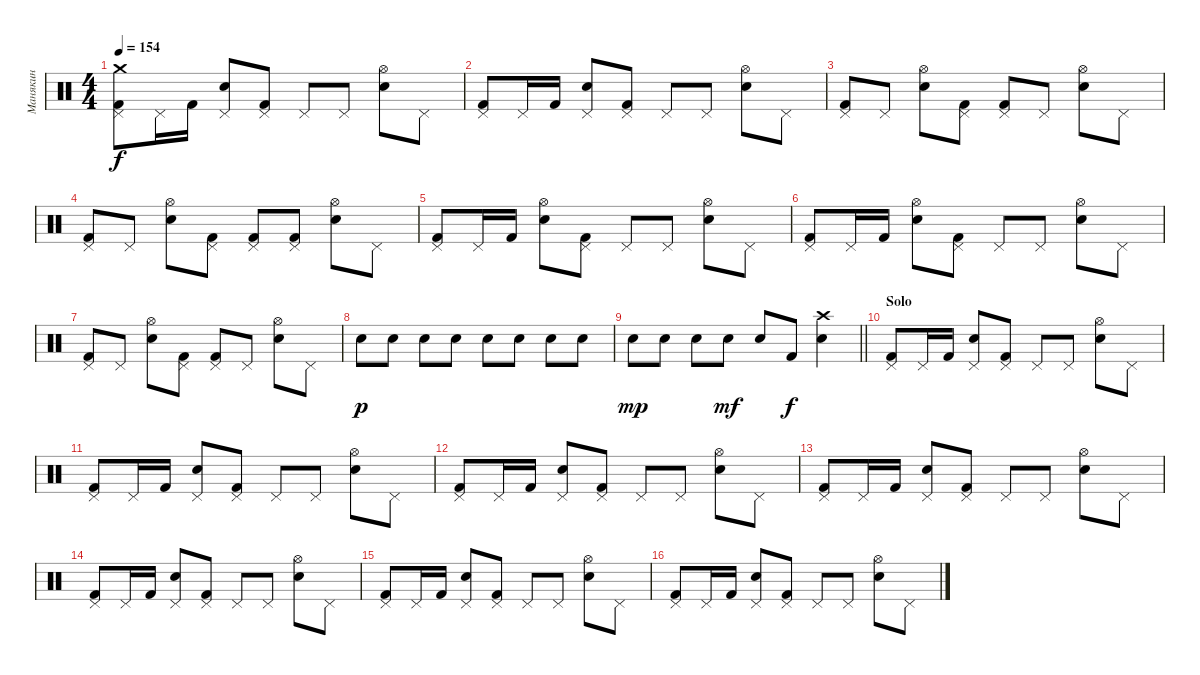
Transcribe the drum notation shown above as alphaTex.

\track ("Манякин" "Манякин") {instrument percussion}
\staff {score}
\articulation defaults
\ts (4 4)
\tempo 154
\clef neutral
\ks c
("Crash medium (hit)" "Pedal Hi-Hat (hit)" "Kick (hit) 2").8{dy f} "Pedal Hi-Hat (hit)".16 "Kick (hit) 2".16 ("Pedal Hi-Hat (hit)" "Electric Snare (hit)").8 ("Pedal Hi-Hat (hit)" "Kick (hit) 2").8 "Pedal Hi-Hat (hit)".8 "Pedal Hi-Hat (hit)".8 ("Hi-Hat (open)" "Electric Snare (hit)").8 "Pedal Hi-Hat (hit)".8 |
("Pedal Hi-Hat (hit)" "Kick (hit) 2").8 "Pedal Hi-Hat (hit)".16 "Kick (hit) 2".16 ("Pedal Hi-Hat (hit)" "Electric Snare (hit)").8 ("Pedal Hi-Hat (hit)" "Kick (hit) 2").8 "Pedal Hi-Hat (hit)".8 "Pedal Hi-Hat (hit)".8 ("Hi-Hat (open)" "Electric Snare (hit)").8 "Pedal Hi-Hat (hit)".8 |
("Pedal Hi-Hat (hit)" "Kick (hit) 2").8 "Pedal Hi-Hat (hit)".8 ("Hi-Hat (open)" "Electric Snare (hit)").8 ("Pedal Hi-Hat (hit)" "Kick (hit) 2").8 ("Pedal Hi-Hat (hit)" "Kick (hit) 2").8 "Pedal Hi-Hat (hit)".8 ("Hi-Hat (open)" "Electric Snare (hit)").8 "Pedal Hi-Hat (hit)".8 |
("Pedal Hi-Hat (hit)" "Kick (hit) 2").8 "Pedal Hi-Hat (hit)".8 ("Hi-Hat (open)" "Electric Snare (hit)").8 ("Pedal Hi-Hat (hit)" "Kick (hit) 2").8 ("Pedal Hi-Hat (hit)" "Kick (hit) 2").8 ("Pedal Hi-Hat (hit)" "Kick (hit) 2").8 ("Hi-Hat (open)" "Electric Snare (hit)").8 "Pedal Hi-Hat (hit)".8 |
("Pedal Hi-Hat (hit)" "Kick (hit) 2").8 "Pedal Hi-Hat (hit)".16 "Kick (hit) 2".16 ("Hi-Hat (open)" "Electric Snare (hit)").8 ("Pedal Hi-Hat (hit)" "Kick (hit) 2").8 "Pedal Hi-Hat (hit)".8 "Pedal Hi-Hat (hit)".8 ("Hi-Hat (open)" "Electric Snare (hit)").8 "Pedal Hi-Hat (hit)".8 |
("Pedal Hi-Hat (hit)" "Kick (hit) 2").8 "Pedal Hi-Hat (hit)".16 "Kick (hit) 2".16 ("Hi-Hat (open)" "Electric Snare (hit)").8 ("Pedal Hi-Hat (hit)" "Kick (hit) 2").8 "Pedal Hi-Hat (hit)".8 "Pedal Hi-Hat (hit)".8 ("Hi-Hat (open)" "Electric Snare (hit)").8 "Pedal Hi-Hat (hit)".8 |
("Pedal Hi-Hat (hit)" "Kick (hit) 2").8 "Pedal Hi-Hat (hit)".8 ("Hi-Hat (open)" "Electric Snare (hit)").8 ("Pedal Hi-Hat (hit)" "Kick (hit) 2").8 ("Pedal Hi-Hat (hit)" "Kick (hit) 2").8 "Pedal Hi-Hat (hit)".8 ("Hi-Hat (open)" "Electric Snare (hit)").8 "Pedal Hi-Hat (hit)".8 |
"Electric Snare (hit)".8{dy p} "Electric Snare (hit)".8 "Electric Snare (hit)".8 "Electric Snare (hit)".8 "Electric Snare (hit)".8 "Electric Snare (hit)".8 "Electric Snare (hit)".8 "Electric Snare (hit)".8 |
\barLineRight lightlight "Electric Snare (hit)".8{dy mp} "Electric Snare (hit)".8 "Electric Snare (hit)".8 "Electric Snare (hit)".8{dy mf} "Electric Snare (hit)".8 "Kick (hit) 2".8{dy f}
("Crash high (hit)" "Electric Snare (hit)").4 |
\section ("" "Solo")
("Pedal Hi-Hat (hit)" "Kick (hit) 2").8 "Pedal Hi-Hat (hit)".16 "Kick (hit) 2".16 ("Pedal Hi-Hat (hit)" "Electric Snare (hit)").8 ("Pedal Hi-Hat (hit)" "Kick (hit) 2").8 "Pedal Hi-Hat (hit)".8 "Pedal Hi-Hat (hit)".8 ("Hi-Hat (open)" "Electric Snare (hit)").8 "Pedal Hi-Hat (hit)".8 |
("Pedal Hi-Hat (hit)" "Kick (hit) 2").8 "Pedal Hi-Hat (hit)".16 "Kick (hit) 2".16 ("Pedal Hi-Hat (hit)" "Electric Snare (hit)").8 ("Pedal Hi-Hat (hit)" "Kick (hit) 2").8 "Pedal Hi-Hat (hit)".8 "Pedal Hi-Hat (hit)".8 ("Hi-Hat (open)" "Electric Snare (hit)").8 "Pedal Hi-Hat (hit)".8 |
("Pedal Hi-Hat (hit)" "Kick (hit) 2").8 "Pedal Hi-Hat (hit)".16 "Kick (hit) 2".16 ("Pedal Hi-Hat (hit)" "Electric Snare (hit)").8 ("Pedal Hi-Hat (hit)" "Kick (hit) 2").8 "Pedal Hi-Hat (hit)".8 "Pedal Hi-Hat (hit)".8 ("Hi-Hat (open)" "Electric Snare (hit)").8 "Pedal Hi-Hat (hit)".8 |
("Pedal Hi-Hat (hit)" "Kick (hit) 2").8 "Pedal Hi-Hat (hit)".16 "Kick (hit) 2".16 ("Pedal Hi-Hat (hit)" "Electric Snare (hit)").8 ("Pedal Hi-Hat (hit)" "Kick (hit) 2").8 "Pedal Hi-Hat (hit)".8 "Pedal Hi-Hat (hit)".8 ("Hi-Hat (open)" "Electric Snare (hit)").8 "Pedal Hi-Hat (hit)".8 |
("Pedal Hi-Hat (hit)" "Kick (hit) 2").8 "Pedal Hi-Hat (hit)".16 "Kick (hit) 2".16 ("Pedal Hi-Hat (hit)" "Electric Snare (hit)").8 ("Pedal Hi-Hat (hit)" "Kick (hit) 2").8 "Pedal Hi-Hat (hit)".8 "Pedal Hi-Hat (hit)".8 ("Hi-Hat (open)" "Electric Snare (hit)").8 "Pedal Hi-Hat (hit)".8 |
("Pedal Hi-Hat (hit)" "Kick (hit) 2").8 "Pedal Hi-Hat (hit)".16 "Kick (hit) 2".16 ("Pedal Hi-Hat (hit)" "Electric Snare (hit)").8 ("Pedal Hi-Hat (hit)" "Kick (hit) 2").8 "Pedal Hi-Hat (hit)".8 "Pedal Hi-Hat (hit)".8 ("Hi-Hat (open)" "Electric Snare (hit)").8 "Pedal Hi-Hat (hit)".8 |
("Pedal Hi-Hat (hit)" "Kick (hit) 2").8 "Pedal Hi-Hat (hit)".16 "Kick (hit) 2".16 ("Pedal Hi-Hat (hit)" "Electric Snare (hit)").8 ("Pedal Hi-Hat (hit)" "Kick (hit) 2").8 "Pedal Hi-Hat (hit)".8 "Pedal Hi-Hat (hit)".8 ("Hi-Hat (open)" "Electric Snare (hit)").8 "Pedal Hi-Hat (hit)".8
